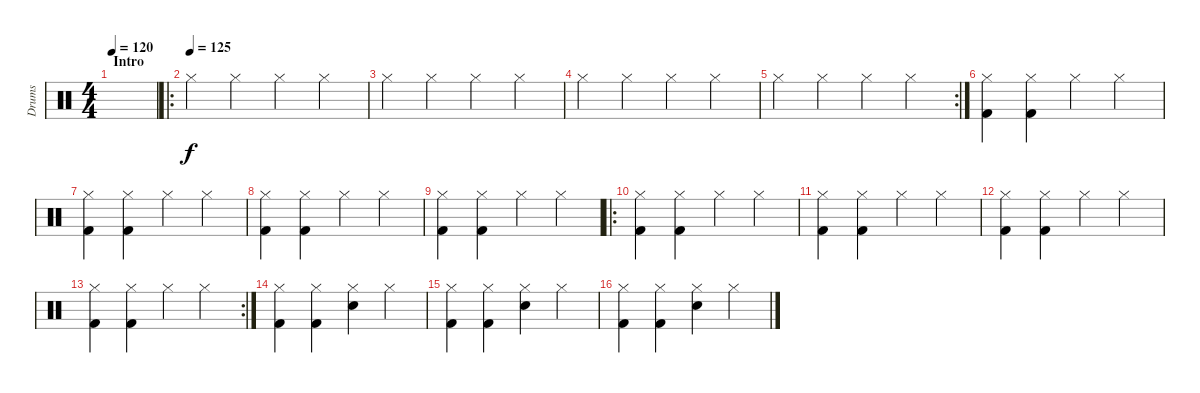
\track ("Drums" "Drums") {instrument percussion}
\staff {score}
\articulation defaults
\ts (4 4)
\section ("" "Intro ")
\tempo 120
\clef neutral
\ks c
|
\ro
\tempo (125)
"Hi-Hat (closed)".4 "Hi-Hat (closed)".4 "Hi-Hat (closed)".4 "Hi-Hat (closed)".4 |
"Hi-Hat (closed)".4 "Hi-Hat (closed)".4 "Hi-Hat (closed)".4 "Hi-Hat (closed)".4 |
"Hi-Hat (closed)".4 "Hi-Hat (closed)".4 "Hi-Hat (closed)".4 "Hi-Hat (closed)".4 |
\rc 2 "Hi-Hat (closed)".4 "Hi-Hat (closed)".4 "Hi-Hat (closed)".4 "Hi-Hat (closed)".4
|
("Hi-Hat (closed)" "Kick (hit) 2").4 ("Hi-Hat (closed)" "Kick (hit) 2").4 "Hi-Hat (closed)".4 "Hi-Hat (closed)".4 |
("Hi-Hat (closed)" "Kick (hit) 2").4 ("Hi-Hat (closed)" "Kick (hit) 2").4 "Hi-Hat (closed)".4 "Hi-Hat (closed)".4 |
("Hi-Hat (closed)" "Kick (hit) 2").4 ("Hi-Hat (closed)" "Kick (hit) 2").4 "Hi-Hat (closed)".4 "Hi-Hat (closed)".4 |
("Hi-Hat (closed)" "Kick (hit) 2").4 ("Hi-Hat (closed)" "Kick (hit) 2").4 "Hi-Hat (closed)".4 "Hi-Hat (closed)".4 |
\ro
("Hi-Hat (closed)" "Kick (hit) 2").4 ("Hi-Hat (closed)" "Kick (hit) 2").4 "Hi-Hat (closed)".4 "Hi-Hat (closed)".4 |
("Hi-Hat (closed)" "Kick (hit) 2").4 ("Hi-Hat (closed)" "Kick (hit) 2").4 "Hi-Hat (closed)".4 "Hi-Hat (closed)".4 |
("Hi-Hat (closed)" "Kick (hit) 2").4 ("Hi-Hat (closed)" "Kick (hit) 2").4 "Hi-Hat (closed)".4 "Hi-Hat (closed)".4 |
\rc 2
("Hi-Hat (closed)" "Kick (hit) 2").4 ("Hi-Hat (closed)" "Kick (hit) 2").4 "Hi-Hat (closed)".4 "Hi-Hat (closed)".4 |
("Hi-Hat (closed)" "Kick (hit) 2").4 ("Hi-Hat (closed)" "Kick (hit) 2").4 ("Hi-Hat (closed)" "Snare (hit) 2").4 "Hi-Hat (closed)".4 |
("Hi-Hat (closed)" "Kick (hit) 2").4 ("Hi-Hat (closed)" "Kick (hit) 2").4 ("Hi-Hat (closed)" "Snare (hit) 2").4 "Hi-Hat (closed)".4 |
("Hi-Hat (closed)" "Kick (hit) 2").4 ("Hi-Hat (closed)" "Kick (hit) 2").4 ("Hi-Hat (closed)" "Snare (hit) 2").4 "Hi-Hat (closed)".4
